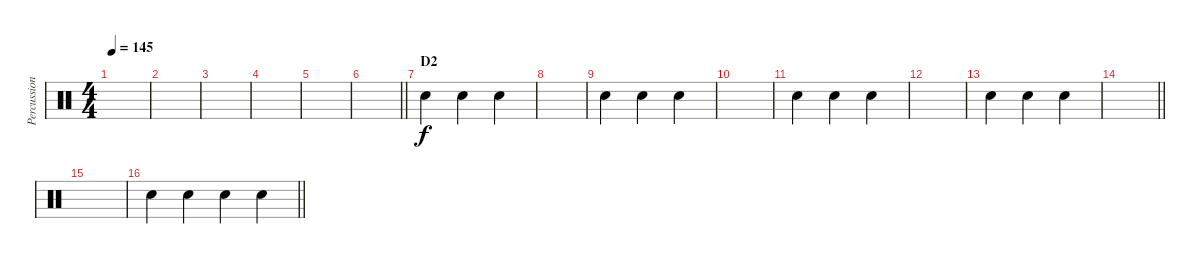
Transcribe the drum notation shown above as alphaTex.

\track ("Percussion" "Percussion") {instrument percussion}
\staff {score}
\articulation defaults
\ts (4 4)
\tempo 145
\clef neutral
\ks c
|
|
|
|
|
\barLineRight lightlight
|
\section ("" "D2")
"Hand Clap (hit)".4 "Hand Clap (hit)".4 "Hand Clap (hit)".4 |
|
"Hand Clap (hit)".4 "Hand Clap (hit)".4{beam merge} "Hand Clap (hit)".4 |
|
"Hand Clap (hit)".4 "Hand Clap (hit)".4 "Hand Clap (hit)".4 |
|
"Hand Clap (hit)".4 "Hand Clap (hit)".4 "Hand Clap (hit)".4 |
\barLineRight lightlight
|
|
\barLineRight lightlight "Hand Clap (hit)".4 "Hand Clap (hit)".4 "Hand Clap (hit)".4 "Hand Clap (hit)".4
